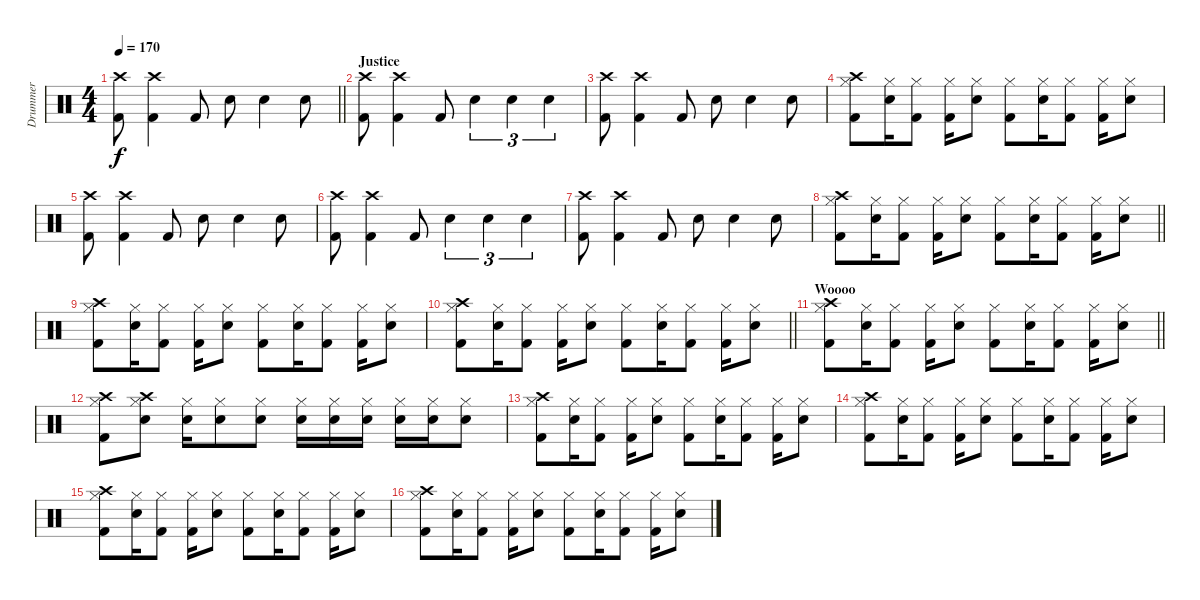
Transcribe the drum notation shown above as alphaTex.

\track ("Drummer" "Drummer") {instrument percussion}
\staff {score}
\articulation defaults
\ts (4 4)
\tempo 170
\clef neutral
\barLineRight lightlight
\ks c
("Kick (hit) 2" "Crash high (hit)").8{dy f} ("Kick (hit) 2" "Crash high (hit)").4 "Kick (hit) 2".8 "Electric Snare (hit)".8 "Electric Snare (hit)".4 "Electric Snare (hit)".8 |
\section ("" "Justice")
("Kick (hit) 2" "Crash high (hit)").8 ("Kick (hit) 2" "Crash high (hit)").4 "Kick (hit) 2".8 "Electric Snare (hit)".4{tu (3 2)} "Electric Snare (hit)".4{tu (3 2)} "Electric Snare (hit)".4{tu (3 2)} |
("Kick (hit) 2" "Crash high (hit)").8 ("Kick (hit) 2" "Crash high (hit)").4 "Kick (hit) 2".8 "Electric Snare (hit)".8 "Electric Snare (hit)".4 "Electric Snare (hit)".8 |
("Kick (hit) 2" "Hi-Hat (closed)" "Crash high (hit)").8 ("Electric Snare (hit)" "Hi-Hat (closed)").16 ("Kick (hit) 2" "Hi-Hat (closed)").8 ("Kick (hit) 2" "Hi-Hat (closed)").16 ("Electric Snare (hit)" "Hi-Hat (closed)").8 ("Kick (hit) 2" "Hi-Hat (closed)").8 ("Electric Snare (hit)" "Hi-Hat (closed)").16 ("Kick (hit) 2" "Hi-Hat (closed)").8 ("Kick (hit) 2" "Hi-Hat (closed)").16 ("Electric Snare (hit)" "Hi-Hat (closed)").8 |
("Kick (hit) 2" "Crash high (hit)").8 ("Kick (hit) 2" "Crash high (hit)").4 "Kick (hit) 2".8 "Electric Snare (hit)".8 "Electric Snare (hit)".4 "Electric Snare (hit)".8 |
("Kick (hit) 2" "Crash high (hit)").8 ("Kick (hit) 2" "Crash high (hit)").4 "Kick (hit) 2".8 "Electric Snare (hit)".4{tu (3 2)} "Electric Snare (hit)".4{tu (3 2)} "Electric Snare (hit)".4{tu (3 2)} |
("Kick (hit) 2" "Crash high (hit)").8 ("Kick (hit) 2" "Crash high (hit)").4 "Kick (hit) 2".8 "Electric Snare (hit)".8 "Electric Snare (hit)".4 "Electric Snare (hit)".8 |
\barLineRight lightlight
("Kick (hit) 2" "Hi-Hat (closed)" "Crash high (hit)").8 ("Electric Snare (hit)" "Hi-Hat (closed)").16 ("Kick (hit) 2" "Hi-Hat (closed)").8 ("Kick (hit) 2" "Hi-Hat (closed)").16 ("Electric Snare (hit)" "Hi-Hat (closed)").8 ("Kick (hit) 2" "Hi-Hat (closed)").8 ("Electric Snare (hit)" "Hi-Hat (closed)").16 ("Kick (hit) 2" "Hi-Hat (closed)").8 ("Kick (hit) 2" "Hi-Hat (closed)").16 ("Electric Snare (hit)" "Hi-Hat (closed)").8 |
("Kick (hit) 2" "Hi-Hat (closed)" "Crash high (hit)").8 ("Electric Snare (hit)" "Hi-Hat (closed)").16 ("Kick (hit) 2" "Hi-Hat (closed)").8 ("Kick (hit) 2" "Hi-Hat (closed)").16 ("Electric Snare (hit)" "Hi-Hat (closed)").8 ("Kick (hit) 2" "Hi-Hat (closed)").8 ("Electric Snare (hit)" "Hi-Hat (closed)").16 ("Kick (hit) 2" "Hi-Hat (closed)").8 ("Kick (hit) 2" "Hi-Hat (closed)").16 ("Electric Snare (hit)" "Hi-Hat (closed)").8 |
\barLineRight lightlight
("Kick (hit) 2" "Hi-Hat (closed)" "Crash high (hit)").8 ("Electric Snare (hit)" "Hi-Hat (closed)").16 ("Kick (hit) 2" "Hi-Hat (closed)").8 ("Kick (hit) 2" "Hi-Hat (closed)").16 ("Electric Snare (hit)" "Hi-Hat (closed)").8 ("Kick (hit) 2" "Hi-Hat (closed)").8 ("Electric Snare (hit)" "Hi-Hat (closed)").16 ("Kick (hit) 2" "Hi-Hat (closed)").8 ("Kick (hit) 2" "Hi-Hat (closed)").16 ("Electric Snare (hit)" "Hi-Hat (closed)").8 |
\section ("" "Woooo")
\barLineRight lightlight
("Kick (hit) 2" "Hi-Hat (closed)" "Crash high (hit)").8 ("Electric Snare (hit)" "Hi-Hat (closed)").16 ("Kick (hit) 2" "Hi-Hat (closed)").8 ("Kick (hit) 2" "Hi-Hat (closed)").16 ("Electric Snare (hit)" "Hi-Hat (closed)").8 ("Kick (hit) 2" "Hi-Hat (closed)").8 ("Electric Snare (hit)" "Hi-Hat (closed)").16 ("Kick (hit) 2" "Hi-Hat (closed)").8 ("Kick (hit) 2" "Hi-Hat (closed)").16 ("Electric Snare (hit)" "Hi-Hat (closed)").8 |
("Kick (hit) 2" "Hi-Hat (closed)" "Crash high (hit)").8 ("Electric Snare (hit)" "Hi-Hat (closed)" "Crash high (hit)").8 ("Electric Snare (hit)" "Hi-Hat (closed)").16 ("Electric Snare (hit)" "Hi-Hat (closed)").8 ("Electric Snare (hit)" "Hi-Hat (closed)").8 ("Electric Snare (hit)" "Hi-Hat (closed)").16 ("Electric Snare (hit)" "Hi-Hat (closed)").16 ("Electric Snare (hit)" "Hi-Hat (closed)").16 ("Electric Snare (hit)" "Hi-Hat (closed)").16 ("Electric Snare (hit)" "Hi-Hat (closed)").16 ("Electric Snare (hit)" "Hi-Hat (closed)").8 |
("Kick (hit) 2" "Hi-Hat (closed)" "Crash high (hit)").8 ("Electric Snare (hit)" "Hi-Hat (closed)").16 ("Kick (hit) 2" "Hi-Hat (closed)").8 ("Kick (hit) 2" "Hi-Hat (closed)").16 ("Electric Snare (hit)" "Hi-Hat (closed)").8 ("Kick (hit) 2" "Hi-Hat (closed)").8 ("Electric Snare (hit)" "Hi-Hat (closed)").16 ("Kick (hit) 2" "Hi-Hat (closed)").8 ("Kick (hit) 2" "Hi-Hat (closed)").16 ("Electric Snare (hit)" "Hi-Hat (closed)").8 |
("Kick (hit) 2" "Hi-Hat (closed)" "Crash high (hit)").8 ("Electric Snare (hit)" "Hi-Hat (closed)").16 ("Kick (hit) 2" "Hi-Hat (closed)").8 ("Kick (hit) 2" "Hi-Hat (closed)").16 ("Electric Snare (hit)" "Hi-Hat (closed)").8 ("Kick (hit) 2" "Hi-Hat (closed)").8 ("Electric Snare (hit)" "Hi-Hat (closed)").16 ("Kick (hit) 2" "Hi-Hat (closed)").8 ("Kick (hit) 2" "Hi-Hat (closed)").16 ("Electric Snare (hit)" "Hi-Hat (closed)").8 |
("Kick (hit) 2" "Hi-Hat (closed)" "Crash high (hit)").8 ("Electric Snare (hit)" "Hi-Hat (closed)").16 ("Kick (hit) 2" "Hi-Hat (closed)").8 ("Kick (hit) 2" "Hi-Hat (closed)").16 ("Electric Snare (hit)" "Hi-Hat (closed)").8 ("Kick (hit) 2" "Hi-Hat (closed)").8 ("Electric Snare (hit)" "Hi-Hat (closed)").16 ("Kick (hit) 2" "Hi-Hat (closed)").8 ("Kick (hit) 2" "Hi-Hat (closed)").16 ("Electric Snare (hit)" "Hi-Hat (closed)").8 |
("Kick (hit) 2" "Hi-Hat (closed)" "Crash high (hit)").8 ("Electric Snare (hit)" "Hi-Hat (closed)").16 ("Kick (hit) 2" "Hi-Hat (closed)").8 ("Kick (hit) 2" "Hi-Hat (closed)").16 ("Electric Snare (hit)" "Hi-Hat (closed)").8 ("Kick (hit) 2" "Hi-Hat (closed)").8 ("Electric Snare (hit)" "Hi-Hat (closed)").16 ("Kick (hit) 2" "Hi-Hat (closed)").8 ("Kick (hit) 2" "Hi-Hat (closed)").16 ("Electric Snare (hit)" "Hi-Hat (closed)").8
